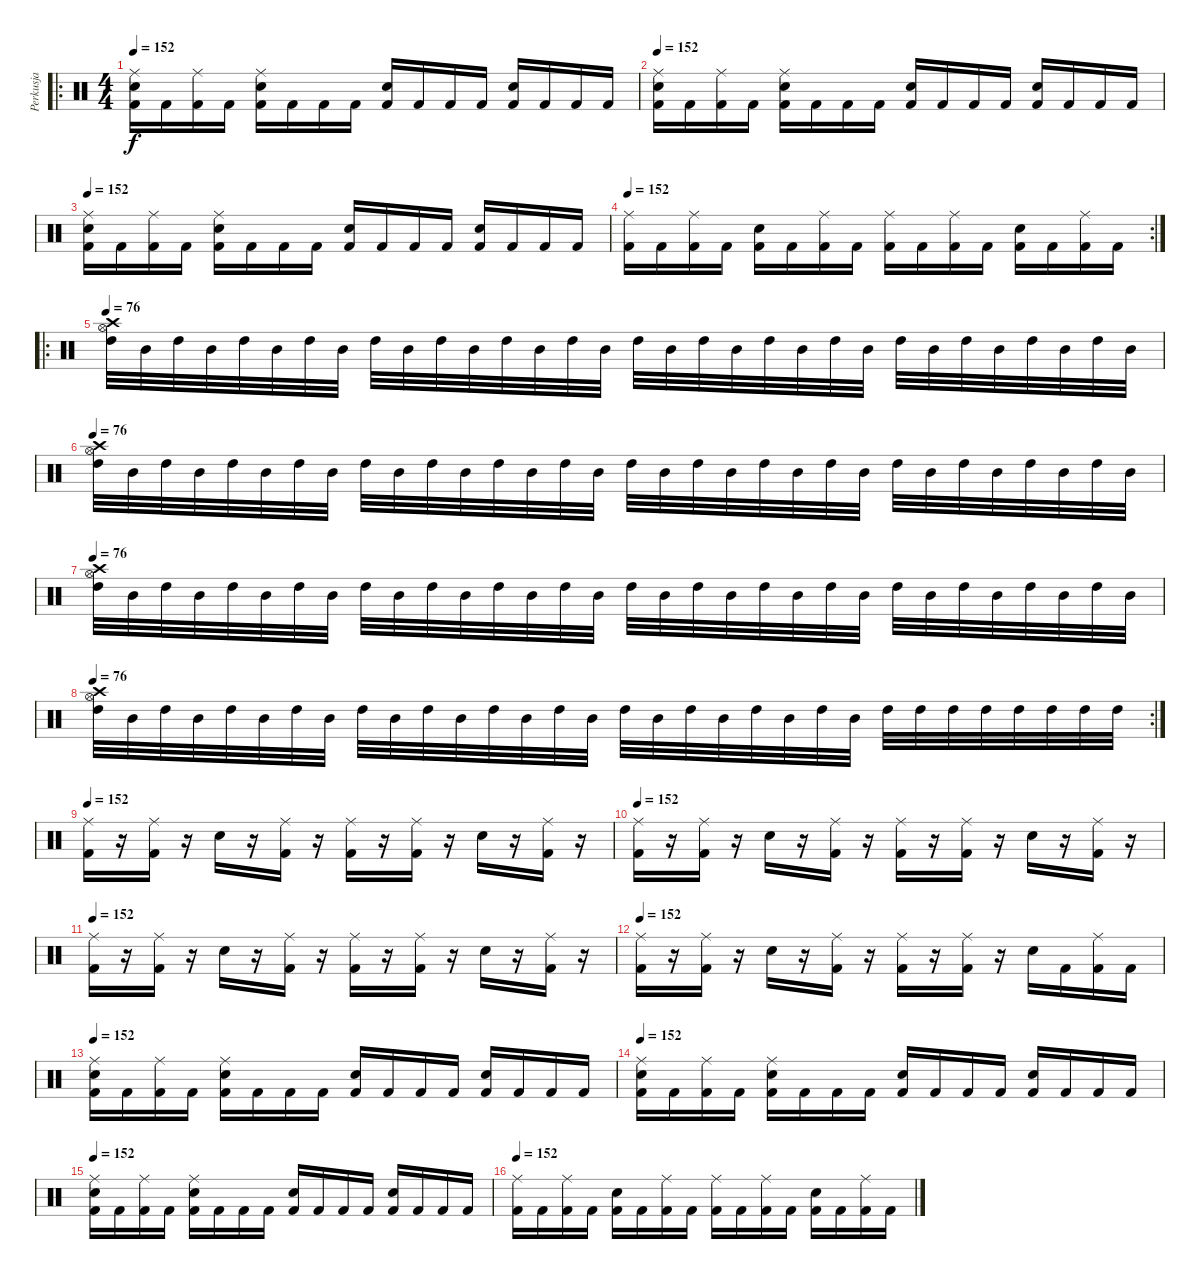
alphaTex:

\track ("Perkusja" "Perkusja") {instrument percussion}
\staff {score}
\articulation defaults
\ro
\ts (4 4)
\tempo 152
\clef neutral
\ks c
("Ride (middle)" "Kick (hit) 2" "Snare (hit) 2").16{dy f} "Kick (hit) 2".16 ("Ride (middle)" "Kick (hit) 2").16 "Kick (hit) 2".16 ("Ride (middle)" "Kick (hit) 2" "Snare (hit) 2").16 "Kick (hit) 2".16 "Kick (hit) 2".16 "Kick (hit) 2".16 ("Kick (hit) 2" "Snare (hit) 2").16 "Kick (hit) 2".16 "Kick (hit) 2".16 "Kick (hit) 2".16 ("Kick (hit) 2" "Snare (hit) 2").16 "Kick (hit) 2".16 "Kick (hit) 2".16 "Kick (hit) 2".16 |
\tempo 152
("Ride (middle)" "Kick (hit) 2" "Snare (hit) 2").16 "Kick (hit) 2".16 ("Ride (middle)" "Kick (hit) 2").16 "Kick (hit) 2".16 ("Ride (middle)" "Kick (hit) 2" "Snare (hit) 2").16 "Kick (hit) 2".16 "Kick (hit) 2".16 "Kick (hit) 2".16 ("Kick (hit) 2" "Snare (hit) 2").16 "Kick (hit) 2".16 "Kick (hit) 2".16 "Kick (hit) 2".16 ("Kick (hit) 2" "Snare (hit) 2").16 "Kick (hit) 2".16 "Kick (hit) 2".16 "Kick (hit) 2".16 |
\tempo 152
("Ride (middle)" "Kick (hit) 2" "Snare (hit) 2").16 "Kick (hit) 2".16 ("Ride (middle)" "Kick (hit) 2").16 "Kick (hit) 2".16 ("Ride (middle)" "Kick (hit) 2" "Snare (hit) 2").16 "Kick (hit) 2".16 "Kick (hit) 2".16 "Kick (hit) 2".16 ("Kick (hit) 2" "Snare (hit) 2").16 "Kick (hit) 2".16 "Kick (hit) 2".16 "Kick (hit) 2".16 ("Kick (hit) 2" "Snare (hit) 2").16 "Kick (hit) 2".16 "Kick (hit) 2".16 "Kick (hit) 2".16 |
\rc 2
\tempo 152
("Ride (middle)" "Kick (hit) 2").16 "Kick (hit) 2".16 ("Ride (middle)" "Kick (hit) 2").16 "Kick (hit) 2".16 ("Snare (hit) 2" "Kick (hit) 2").16 "Kick (hit) 2".16 ("Ride (middle)" "Kick (hit) 2").16 "Kick (hit) 2".16 ("Ride (middle)" "Kick (hit) 2").16 "Kick (hit) 2".16 ("Ride (middle)" "Kick (hit) 2").16 "Kick (hit) 2".16 ("Snare (hit) 2" "Kick (hit) 2").16 "Kick (hit) 2".16 ("Ride (middle)" "Kick (hit) 2").16 "Kick (hit) 2".16 |
\ro
\tempo 76
("Hi-Hat (open)" "Crash high (hit)" "High Tom (hit)").32 "Mid Tom (hit)".32 "High Tom (hit)".32 "Mid Tom (hit)".32 "High Tom (hit)".32 "Mid Tom (hit)".32 "High Tom (hit)".32 "Mid Tom (hit)".32 "High Tom (hit)".32 "Mid Tom (hit)".32 "High Tom (hit)".32 "Mid Tom (hit)".32 "High Tom (hit)".32 "Mid Tom (hit)".32 "High Tom (hit)".32 "Mid Tom (hit)".32 "High Tom (hit)".32 "Mid Tom (hit)".32 "High Tom (hit)".32 "Mid Tom (hit)".32 "High Tom (hit)".32 "Mid Tom (hit)".32 "High Tom (hit)".32 "Mid Tom (hit)".32 "High Tom (hit)".32 "Mid Tom (hit)".32 "High Tom (hit)".32 "Mid Tom (hit)".32 "High Tom (hit)".32 "Mid Tom (hit)".32 "High Tom (hit)".32 "Mid Tom (hit)".32 |
\tempo 76
("Hi-Hat (open)" "Crash high (hit)" "High Tom (hit)").32 "Mid Tom (hit)".32 "High Tom (hit)".32 "Mid Tom (hit)".32 "High Tom (hit)".32 "Mid Tom (hit)".32 "High Tom (hit)".32 "Mid Tom (hit)".32 "High Tom (hit)".32 "Mid Tom (hit)".32 "High Tom (hit)".32 "Mid Tom (hit)".32 "High Tom (hit)".32 "Mid Tom (hit)".32 "High Tom (hit)".32 "Mid Tom (hit)".32 "High Tom (hit)".32 "Mid Tom (hit)".32 "High Tom (hit)".32 "Mid Tom (hit)".32 "High Tom (hit)".32 "Mid Tom (hit)".32 "High Tom (hit)".32 "Mid Tom (hit)".32 "High Tom (hit)".32 "Mid Tom (hit)".32 "High Tom (hit)".32 "Mid Tom (hit)".32 "High Tom (hit)".32 "Mid Tom (hit)".32 "High Tom (hit)".32 "Mid Tom (hit)".32 |
\tempo 76
("Hi-Hat (open)" "Crash high (hit)" "High Tom (hit)").32 "Mid Tom (hit)".32 "High Tom (hit)".32 "Mid Tom (hit)".32 "High Tom (hit)".32 "Mid Tom (hit)".32 "High Tom (hit)".32 "Mid Tom (hit)".32 "High Tom (hit)".32 "Mid Tom (hit)".32 "High Tom (hit)".32 "Mid Tom (hit)".32 "High Tom (hit)".32 "Mid Tom (hit)".32 "High Tom (hit)".32 "Mid Tom (hit)".32 "High Tom (hit)".32 "Mid Tom (hit)".32 "High Tom (hit)".32 "Mid Tom (hit)".32 "High Tom (hit)".32 "Mid Tom (hit)".32 "High Tom (hit)".32 "Mid Tom (hit)".32 "High Tom (hit)".32 "Mid Tom (hit)".32 "High Tom (hit)".32 "Mid Tom (hit)".32 "High Tom (hit)".32 "Mid Tom (hit)".32 "High Tom (hit)".32 "Mid Tom (hit)".32 |
\rc 2
\tempo 76
("Hi-Hat (open)" "Crash high (hit)" "High Tom (hit)").32 "Mid Tom (hit)".32 "High Tom (hit)".32 "Mid Tom (hit)".32 "High Tom (hit)".32 "Mid Tom (hit)".32 "High Tom (hit)".32 "Mid Tom (hit)".32 "High Tom (hit)".32 "Mid Tom (hit)".32 "High Tom (hit)".32 "Mid Tom (hit)".32 "High Tom (hit)".32 "Mid Tom (hit)".32 "High Tom (hit)".32 "Mid Tom (hit)".32 "High Tom (hit)".32 "Mid Tom (hit)".32 "High Tom (hit)".32 "Mid Tom (hit)".32 "High Tom (hit)".32 "Mid Tom (hit)".32 "High Tom (hit)".32 "Mid Tom (hit)".32 "High Tom (hit)".32 "High Tom (hit)".32 "High Tom (hit)".32 "High Tom (hit)".32 "High Tom (hit)".32 "High Tom (hit)".32 "High Tom (hit)".32 "High Tom (hit)".32 |
\tempo 152
("Ride (middle)" "Kick (hit) 2").16 r.16 ("Ride (middle)" "Kick (hit) 2").16 r.16 "Snare (hit) 2".16 r.16 ("Ride (middle)" "Kick (hit) 2").16 r.16 ("Ride (middle)" "Kick (hit) 2").16 r.16 ("Ride (middle)" "Kick (hit) 2").16 r.16 "Snare (hit) 2".16 r.16 ("Ride (middle)" "Kick (hit) 2").16 r.16 |
\tempo 152
("Ride (middle)" "Kick (hit) 2").16 r.16 ("Ride (middle)" "Kick (hit) 2").16 r.16 "Snare (hit) 2".16 r.16 ("Ride (middle)" "Kick (hit) 2").16 r.16 ("Ride (middle)" "Kick (hit) 2").16 r.16 ("Ride (middle)" "Kick (hit) 2").16 r.16 "Snare (hit) 2".16 r.16 ("Ride (middle)" "Kick (hit) 2").16 r.16 |
\tempo 152
("Ride (middle)" "Kick (hit) 2").16 r.16 ("Ride (middle)" "Kick (hit) 2").16 r.16 "Snare (hit) 2".16 r.16 ("Ride (middle)" "Kick (hit) 2").16 r.16 ("Ride (middle)" "Kick (hit) 2").16 r.16 ("Ride (middle)" "Kick (hit) 2").16 r.16 "Snare (hit) 2".16 r.16 ("Ride (middle)" "Kick (hit) 2").16 r.16 |
\tempo 152
("Ride (middle)" "Kick (hit) 2").16 r.16 ("Ride (middle)" "Kick (hit) 2").16 r.16 "Snare (hit) 2".16 r.16 ("Ride (middle)" "Kick (hit) 2").16 r.16 ("Ride (middle)" "Kick (hit) 2").16 r.16 ("Ride (middle)" "Kick (hit) 2").16 r.16 "Snare (hit) 2".16 "Kick (hit) 2".16 ("Ride (middle)" "Kick (hit) 2").16 "Kick (hit) 2".16 |
\tempo 152
("Ride (middle)" "Kick (hit) 2" "Snare (hit) 2").16 "Kick (hit) 2".16 ("Ride (middle)" "Kick (hit) 2").16 "Kick (hit) 2".16 ("Ride (middle)" "Kick (hit) 2" "Snare (hit) 2").16 "Kick (hit) 2".16 "Kick (hit) 2".16 "Kick (hit) 2".16 ("Kick (hit) 2" "Snare (hit) 2").16 "Kick (hit) 2".16 "Kick (hit) 2".16 "Kick (hit) 2".16 ("Kick (hit) 2" "Snare (hit) 2").16 "Kick (hit) 2".16 "Kick (hit) 2".16 "Kick (hit) 2".16 |
\tempo 152
("Ride (middle)" "Kick (hit) 2" "Snare (hit) 2").16 "Kick (hit) 2".16 ("Ride (middle)" "Kick (hit) 2").16 "Kick (hit) 2".16 ("Ride (middle)" "Kick (hit) 2" "Snare (hit) 2").16 "Kick (hit) 2".16 "Kick (hit) 2".16 "Kick (hit) 2".16 ("Kick (hit) 2" "Snare (hit) 2").16 "Kick (hit) 2".16 "Kick (hit) 2".16 "Kick (hit) 2".16 ("Kick (hit) 2" "Snare (hit) 2").16 "Kick (hit) 2".16 "Kick (hit) 2".16 "Kick (hit) 2".16 |
\tempo 152
("Ride (middle)" "Kick (hit) 2" "Snare (hit) 2").16 "Kick (hit) 2".16 ("Ride (middle)" "Kick (hit) 2").16 "Kick (hit) 2".16 ("Ride (middle)" "Kick (hit) 2" "Snare (hit) 2").16 "Kick (hit) 2".16 "Kick (hit) 2".16 "Kick (hit) 2".16 ("Kick (hit) 2" "Snare (hit) 2").16 "Kick (hit) 2".16 "Kick (hit) 2".16 "Kick (hit) 2".16 ("Kick (hit) 2" "Snare (hit) 2").16 "Kick (hit) 2".16 "Kick (hit) 2".16 "Kick (hit) 2".16 |
\tempo 152
("Ride (middle)" "Kick (hit) 2").16 "Kick (hit) 2".16 ("Ride (middle)" "Kick (hit) 2").16 "Kick (hit) 2".16 ("Snare (hit) 2" "Kick (hit) 2").16 "Kick (hit) 2".16 ("Ride (middle)" "Kick (hit) 2").16 "Kick (hit) 2".16 ("Ride (middle)" "Kick (hit) 2").16 "Kick (hit) 2".16 ("Ride (middle)" "Kick (hit) 2").16 "Kick (hit) 2".16 ("Snare (hit) 2" "Kick (hit) 2").16 "Kick (hit) 2".16 ("Ride (middle)" "Kick (hit) 2").16 "Kick (hit) 2".16
